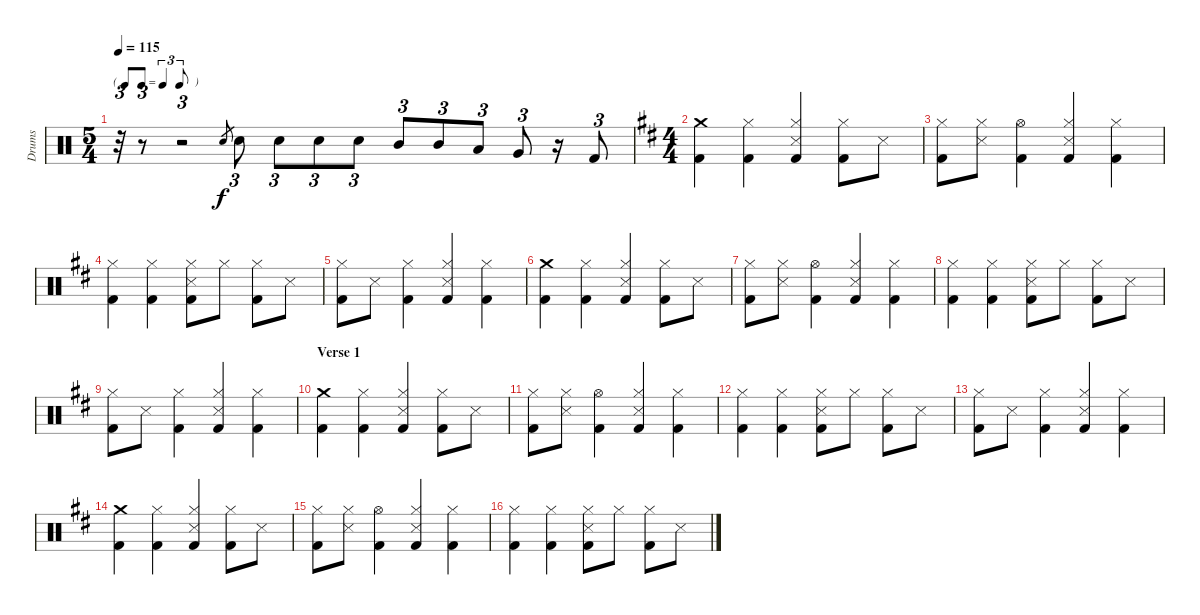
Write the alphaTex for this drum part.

\track ("Drums" "Drums") {instrument percussion}
\staff {score}
\articulation defaults
\ts (5 4)
\tf triplet8th
\tempo 115
\clef neutral
\ks c
r.32{tu (3 2) dy f} r.8{tu (3 2)} r.2{tu (3 2)} "Snare (hit) 2".8{gr} "Snare (hit) 2".8{tu (3 2)} "Snare (hit) 2".8{tu (3 2)} "Snare (hit) 2".8{tu (3 2)} "Snare (hit) 2".8{tu (3 2)} "Mid Tom (hit)".8{tu (3 2)} "Mid Tom (hit)".8{tu (3 2)} "Low Tom (hit)".8{tu (3 2)} "Very Low Tom (hit)".8{tu (3 2)} r.16 "Kick (hit) 2".8{tu (3 2)} |
\ts (4 4)
\ks d
("Crash medium (hit)" "Kick (hit) 2").4 ("Hi-Hat (closed)" "Kick (hit) 2").4 ("Hi-Hat (closed)" "Snare (side stick) 3" "Kick (hit) 2").4 ("Hi-Hat (closed)" "Kick (hit) 2").8 "Snare (side stick) 3".8 |
("Hi-Hat (closed)" "Kick (hit) 2").8 ("Hi-Hat (closed)" "Snare (side stick) 3").8 ("Hi-Hat (open)" "Kick (hit) 2").4 ("Hi-Hat (closed)" "Snare (side stick) 3" "Kick (hit) 2").4 ("Hi-Hat (closed)" "Kick (hit) 2").4 |
("Hi-Hat (closed)" "Kick (hit) 2").4 ("Hi-Hat (closed)" "Kick (hit) 2").4 ("Hi-Hat (closed)" "Snare (side stick) 3" "Kick (hit) 2").8 "Hi-Hat (closed)".8 ("Hi-Hat (closed)" "Kick (hit) 2").8 "Snare (side stick) 3".8 |
("Hi-Hat (closed)" "Kick (hit) 2").8 "Snare (side stick) 3".8 ("Hi-Hat (closed)" "Kick (hit) 2").4 ("Hi-Hat (closed)" "Snare (side stick) 3" "Kick (hit) 2").4 ("Hi-Hat (closed)" "Kick (hit) 2").4 |
("Crash medium (hit)" "Kick (hit) 2").4 ("Hi-Hat (closed)" "Kick (hit) 2").4 ("Hi-Hat (closed)" "Snare (side stick) 3" "Kick (hit) 2").4 ("Hi-Hat (closed)" "Kick (hit) 2").8 "Snare (side stick) 3".8 |
("Hi-Hat (closed)" "Kick (hit) 2").8 ("Hi-Hat (closed)" "Snare (side stick) 3").8 ("Hi-Hat (open)" "Kick (hit) 2").4 ("Hi-Hat (closed)" "Snare (side stick) 3" "Kick (hit) 2").4 ("Hi-Hat (closed)" "Kick (hit) 2").4 |
("Hi-Hat (closed)" "Kick (hit) 2").4 ("Hi-Hat (closed)" "Kick (hit) 2").4 ("Hi-Hat (closed)" "Snare (side stick) 3" "Kick (hit) 2").8 "Hi-Hat (closed)".8 ("Hi-Hat (closed)" "Kick (hit) 2").8 "Snare (side stick) 3".8 |
("Hi-Hat (closed)" "Kick (hit) 2").8 "Snare (side stick) 3".8 ("Hi-Hat (closed)" "Kick (hit) 2").4 ("Hi-Hat (closed)" "Snare (side stick) 3" "Kick (hit) 2").4 ("Hi-Hat (closed)" "Kick (hit) 2").4 |
\section ("" "Verse 1")
("Crash medium (hit)" "Kick (hit) 2").4 ("Hi-Hat (closed)" "Kick (hit) 2").4 ("Hi-Hat (closed)" "Snare (side stick) 3" "Kick (hit) 2").4 ("Hi-Hat (closed)" "Kick (hit) 2").8 "Snare (side stick) 3".8 |
("Hi-Hat (closed)" "Kick (hit) 2").8 ("Hi-Hat (closed)" "Snare (side stick) 3").8 ("Hi-Hat (open)" "Kick (hit) 2").4 ("Hi-Hat (closed)" "Snare (side stick) 3" "Kick (hit) 2").4 ("Hi-Hat (closed)" "Kick (hit) 2").4 |
("Hi-Hat (closed)" "Kick (hit) 2").4 ("Hi-Hat (closed)" "Kick (hit) 2").4 ("Hi-Hat (closed)" "Snare (side stick) 3" "Kick (hit) 2").8 "Hi-Hat (closed)".8 ("Hi-Hat (closed)" "Kick (hit) 2").8 "Snare (side stick) 3".8 |
("Hi-Hat (closed)" "Kick (hit) 2").8 "Snare (side stick) 3".8 ("Hi-Hat (closed)" "Kick (hit) 2").4 ("Hi-Hat (closed)" "Snare (side stick) 3" "Kick (hit) 2").4 ("Hi-Hat (closed)" "Kick (hit) 2").4 |
("Crash medium (hit)" "Kick (hit) 2").4 ("Hi-Hat (closed)" "Kick (hit) 2").4 ("Hi-Hat (closed)" "Snare (side stick) 3" "Kick (hit) 2").4 ("Hi-Hat (closed)" "Kick (hit) 2").8 "Snare (side stick) 3".8 |
("Hi-Hat (closed)" "Kick (hit) 2").8 ("Hi-Hat (closed)" "Snare (side stick) 3").8 ("Hi-Hat (open)" "Kick (hit) 2").4 ("Hi-Hat (closed)" "Snare (side stick) 3" "Kick (hit) 2").4 ("Hi-Hat (closed)" "Kick (hit) 2").4 |
("Hi-Hat (closed)" "Kick (hit) 2").4 ("Hi-Hat (closed)" "Kick (hit) 2").4 ("Hi-Hat (closed)" "Snare (side stick) 3" "Kick (hit) 2").8 "Hi-Hat (closed)".8 ("Hi-Hat (closed)" "Kick (hit) 2").8 "Snare (side stick) 3".8
